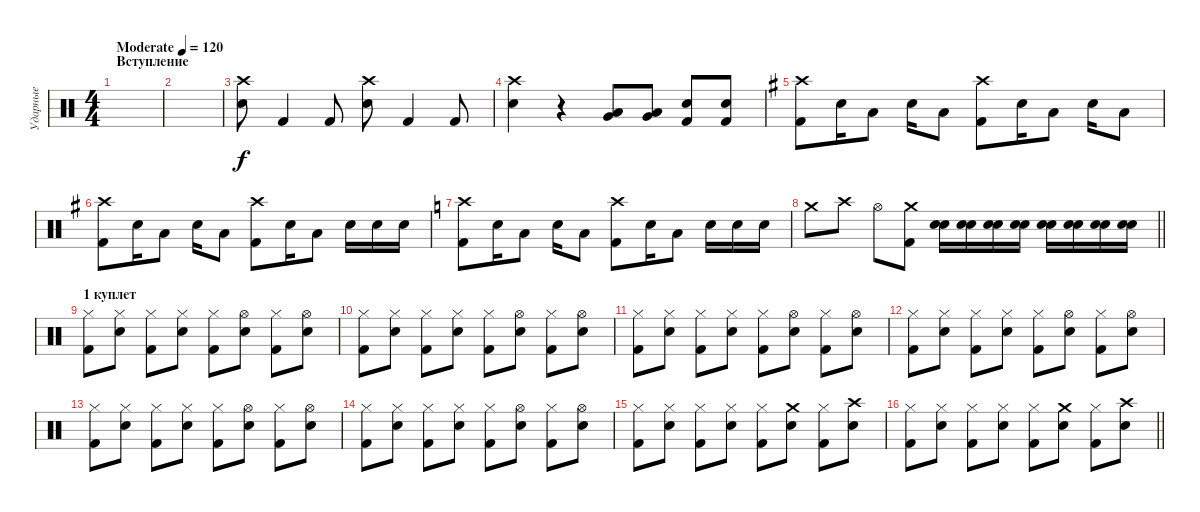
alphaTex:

\track ("Ударные" "Ударные") {instrument percussion}
\staff {score}
\articulation defaults
\ts (4 4)
\section ("" "Вступление")
\tempo (120 "Moderate")
\clef neutral
\ks c
|
|
("Crash high (hit)" "Electric Snare (hit)").8 "Kick (hit) 2".4 "Kick (hit) 2".8 ("Crash high (hit)" "Electric Snare (hit)").8 "Kick (hit) 2".4 "Kick (hit) 2".8 |
("Crash high (hit)" "Electric Snare (hit)").4 r.4 ("Very Low Tom (hit)" "Low Tom (hit)").8 ("Very Low Tom (hit)" "Low Tom (hit)").8 ("Electric Snare (hit)" "Kick (hit) 2").8 ("Electric Snare (hit)" "Kick (hit) 2").8 |
\ks g
("Crash high (hit)" "Kick (hit) 2").8 "Electric Snare (hit)".16 "Low Tom (hit)".8 "Electric Snare (hit)".16 "Low Tom (hit)".8 ("Crash high (hit)" "Kick (hit) 2").8 "Electric Snare (hit)".16 "Low Tom (hit)".8 "Electric Snare (hit)".16 "Low Tom (hit)".8 |
("Crash high (hit)" "Kick (hit) 2").8 "Electric Snare (hit)".16 "Low Tom (hit)".8 "Electric Snare (hit)".16 "Low Tom (hit)".8 ("Crash high (hit)" "Kick (hit) 2").8 "Electric Snare (hit)".16 "Low Tom (hit)".8 "Electric Snare (hit)".16 "Electric Snare (hit)".16 "Electric Snare (hit)".16 |
\ks c
("Crash high (hit)" "Kick (hit) 2").8 "Electric Snare (hit)".16 "Low Tom (hit)".8 "Electric Snare (hit)".16 "Low Tom (hit)".8 ("Crash high (hit)" "Kick (hit) 2").8 "Electric Snare (hit)".16 "Low Tom (hit)".8 "Electric Snare (hit)".16 "Electric Snare (hit)".16 "Electric Snare (hit)".16 |
\barLineRight lightlight "Crash medium (hit)".8 "Crash high (hit)".8 "Hi-Hat (open)".8
("Crash medium (hit)" "Kick (hit) 2").8 ("Electric Snare (hit)" "Snare (hit) 2").16 ("Electric Snare (hit)" "Snare (hit) 2").16 ("Electric Snare (hit)" "Snare (hit) 2").16 ("Electric Snare (hit)" "Snare (hit) 2").16 ("Electric Snare (hit)" "Snare (hit) 2").16 ("Electric Snare (hit)" "Snare (hit) 2").16 ("Electric Snare (hit)" "Snare (hit) 2").16 ("Electric Snare (hit)" "Snare (hit) 2").16 |
\section ("" "1 куплет")
("Hi-Hat (closed)" "Kick (hit) 2").8 ("Hi-Hat (closed)" "Electric Snare (hit)").8 ("Hi-Hat (closed)" "Kick (hit) 2").8 ("Hi-Hat (closed)" "Electric Snare (hit)").8 ("Hi-Hat (closed)" "Kick (hit) 2").8 ("Hi-Hat (open)" "Electric Snare (hit)").8 ("Hi-Hat (closed)" "Kick (hit) 2").8 ("Hi-Hat (open)" "Electric Snare (hit)").8 |
("Hi-Hat (closed)" "Kick (hit) 2").8 ("Hi-Hat (closed)" "Electric Snare (hit)").8 ("Hi-Hat (closed)" "Kick (hit) 2").8 ("Hi-Hat (closed)" "Electric Snare (hit)").8 ("Hi-Hat (closed)" "Kick (hit) 2").8 ("Hi-Hat (open)" "Electric Snare (hit)").8 ("Hi-Hat (closed)" "Kick (hit) 2").8 ("Hi-Hat (open)" "Electric Snare (hit)").8 |
("Hi-Hat (closed)" "Kick (hit) 2").8 ("Hi-Hat (closed)" "Electric Snare (hit)").8 ("Hi-Hat (closed)" "Kick (hit) 2").8 ("Hi-Hat (closed)" "Electric Snare (hit)").8 ("Hi-Hat (closed)" "Kick (hit) 2").8 ("Hi-Hat (open)" "Electric Snare (hit)").8 ("Hi-Hat (closed)" "Kick (hit) 2").8 ("Hi-Hat (open)" "Electric Snare (hit)").8 |
("Hi-Hat (closed)" "Kick (hit) 2").8 ("Hi-Hat (closed)" "Electric Snare (hit)").8 ("Hi-Hat (closed)" "Kick (hit) 2").8 ("Hi-Hat (closed)" "Electric Snare (hit)").8 ("Hi-Hat (closed)" "Kick (hit) 2").8 ("Hi-Hat (open)" "Electric Snare (hit)").8 ("Hi-Hat (closed)" "Kick (hit) 2").8 ("Hi-Hat (open)" "Electric Snare (hit)").8 |
("Hi-Hat (closed)" "Kick (hit) 2").8 ("Hi-Hat (closed)" "Electric Snare (hit)").8 ("Hi-Hat (closed)" "Kick (hit) 2").8 ("Hi-Hat (closed)" "Electric Snare (hit)").8 ("Hi-Hat (closed)" "Kick (hit) 2").8 ("Hi-Hat (open)" "Electric Snare (hit)").8 ("Hi-Hat (closed)" "Kick (hit) 2").8 ("Hi-Hat (open)" "Electric Snare (hit)").8 |
("Hi-Hat (closed)" "Kick (hit) 2").8 ("Hi-Hat (closed)" "Electric Snare (hit)").8 ("Hi-Hat (closed)" "Kick (hit) 2").8 ("Hi-Hat (closed)" "Electric Snare (hit)").8 ("Hi-Hat (closed)" "Kick (hit) 2").8 ("Hi-Hat (open)" "Electric Snare (hit)").8 ("Hi-Hat (closed)" "Kick (hit) 2").8 ("Hi-Hat (open)" "Electric Snare (hit)").8 |
("Hi-Hat (closed)" "Kick (hit) 2").8 ("Hi-Hat (closed)" "Electric Snare (hit)").8 ("Hi-Hat (closed)" "Kick (hit) 2").8 ("Hi-Hat (closed)" "Electric Snare (hit)").8 ("Hi-Hat (closed)" "Kick (hit) 2").8 ("Crash medium (hit)" "Electric Snare (hit)").8 ("Hi-Hat (closed)" "Kick (hit) 2").8 ("Crash high (hit)" "Electric Snare (hit)").8 |
\barLineRight lightlight
("Hi-Hat (closed)" "Kick (hit) 2").8 ("Hi-Hat (closed)" "Electric Snare (hit)").8 ("Hi-Hat (closed)" "Kick (hit) 2").8 ("Hi-Hat (closed)" "Electric Snare (hit)").8 ("Hi-Hat (closed)" "Kick (hit) 2").8 ("Crash medium (hit)" "Electric Snare (hit)").8 ("Hi-Hat (closed)" "Kick (hit) 2").8 ("Crash high (hit)" "Electric Snare (hit)").8
